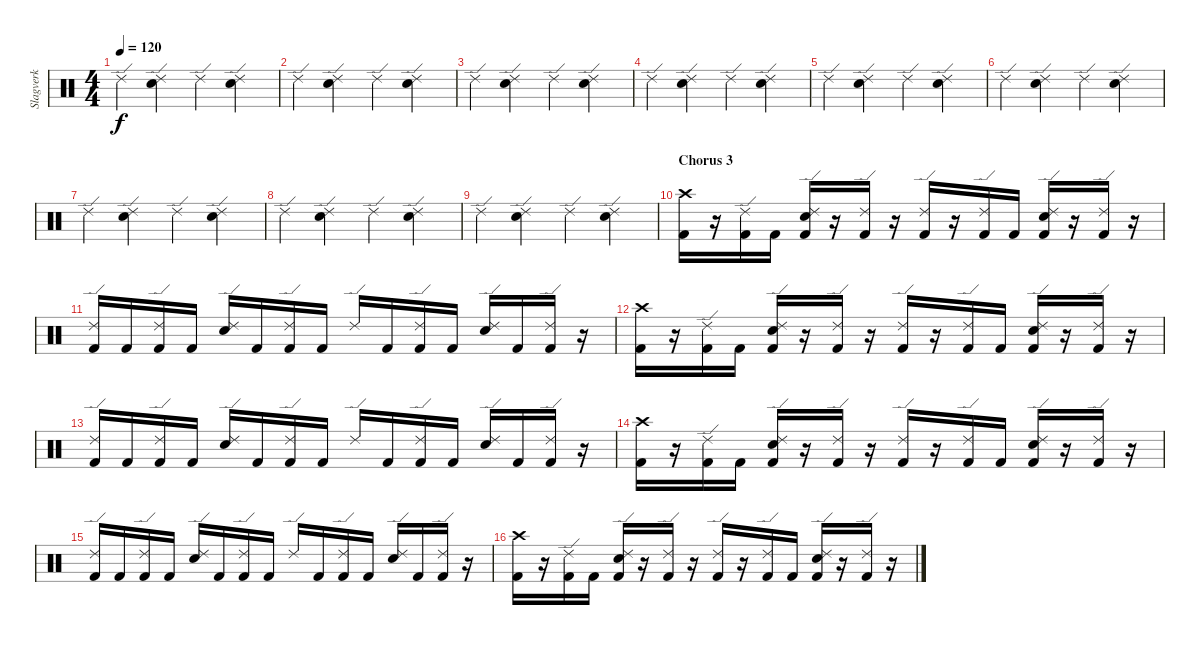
\track ("Slagverk" "Slagverk") {instrument percussion}
\staff {score}
\articulation defaults
\ts (4 4)
\tempo 120
\clef neutral
\ks c "Ride (edge) 2".4{dy f}
("Ride (edge) 2" "Electric Snare (hit)").4 "Ride (edge) 2".4 ("Ride (edge) 2" "Electric Snare (hit)").4 |
"Ride (edge) 2".4 ("Ride (edge) 2" "Electric Snare (hit)").4 "Ride (edge) 2".4 ("Ride (edge) 2" "Electric Snare (hit)").4 |
"Ride (edge) 2".4 ("Ride (edge) 2" "Electric Snare (hit)").4 "Ride (edge) 2".4 ("Ride (edge) 2" "Electric Snare (hit)").4 |
"Ride (edge) 2".4 ("Ride (edge) 2" "Electric Snare (hit)").4 "Ride (edge) 2".4 ("Ride (edge) 2" "Electric Snare (hit)").4 |
"Ride (edge) 2".4 ("Ride (edge) 2" "Electric Snare (hit)").4 "Ride (edge) 2".4 ("Ride (edge) 2" "Electric Snare (hit)").4 |
"Ride (edge) 2".4 ("Ride (edge) 2" "Electric Snare (hit)").4 "Ride (edge) 2".4 ("Ride (edge) 2" "Electric Snare (hit)").4 |
"Ride (edge) 2".4 ("Ride (edge) 2" "Electric Snare (hit)").4 "Ride (edge) 2".4 ("Ride (edge) 2" "Electric Snare (hit)").4 |
"Ride (edge) 2".4 ("Ride (edge) 2" "Electric Snare (hit)").4 "Ride (edge) 2".4 ("Ride (edge) 2" "Electric Snare (hit)").4 |
"Ride (edge) 2".4 ("Ride (edge) 2" "Electric Snare (hit)").4 "Ride (edge) 2".4 ("Ride (edge) 2" "Electric Snare (hit)").4 |
\section ("" "Chorus 3")
("Kick (hit) 2" "Crash high (hit)").16 r.16 ("Kick (hit) 2" "Ride (edge) 2").16 "Kick (hit) 2".16 ("Kick (hit) 2" "Electric Snare (hit)" "Ride (edge) 2").16 r.16 ("Kick (hit) 2" "Ride (edge) 2").16 r.16 ("Kick (hit) 2" "Ride (edge) 2").16 r.16 ("Kick (hit) 2" "Ride (edge) 2").16 "Kick (hit) 2".16 ("Kick (hit) 2" "Electric Snare (hit)" "Ride (edge) 2").16 r.16 ("Kick (hit) 2" "Ride (edge) 2").16 r.16 |
("Kick (hit) 2" "Ride (edge) 2").16 "Kick (hit) 2".16 ("Kick (hit) 2" "Ride (edge) 2").16 "Kick (hit) 2".16 ("Electric Snare (hit)" "Ride (edge) 2").16 "Kick (hit) 2".16 ("Kick (hit) 2" "Ride (edge) 2").16 "Kick (hit) 2".16 "Ride (edge) 2".16 "Kick (hit) 2".16 ("Kick (hit) 2" "Ride (edge) 2").16 "Kick (hit) 2".16 ("Electric Snare (hit)" "Ride (edge) 2").16 "Kick (hit) 2".16 ("Kick (hit) 2" "Ride (edge) 2").16 r.16 |
("Kick (hit) 2" "Crash high (hit)").16 r.16 ("Kick (hit) 2" "Ride (edge) 2").16 "Kick (hit) 2".16 ("Kick (hit) 2" "Electric Snare (hit)" "Ride (edge) 2").16 r.16 ("Kick (hit) 2" "Ride (edge) 2").16 r.16 ("Kick (hit) 2" "Ride (edge) 2").16 r.16 ("Kick (hit) 2" "Ride (edge) 2").16 "Kick (hit) 2".16 ("Kick (hit) 2" "Electric Snare (hit)" "Ride (edge) 2").16 r.16 ("Kick (hit) 2" "Ride (edge) 2").16 r.16 |
("Kick (hit) 2" "Ride (edge) 2").16 "Kick (hit) 2".16 ("Kick (hit) 2" "Ride (edge) 2").16 "Kick (hit) 2".16 ("Electric Snare (hit)" "Ride (edge) 2").16 "Kick (hit) 2".16 ("Kick (hit) 2" "Ride (edge) 2").16 "Kick (hit) 2".16 "Ride (edge) 2".16 "Kick (hit) 2".16 ("Kick (hit) 2" "Ride (edge) 2").16 "Kick (hit) 2".16 ("Electric Snare (hit)" "Ride (edge) 2").16 "Kick (hit) 2".16 ("Kick (hit) 2" "Ride (edge) 2").16 r.16 |
("Kick (hit) 2" "Crash high (hit)").16 r.16 ("Kick (hit) 2" "Ride (edge) 2").16 "Kick (hit) 2".16 ("Kick (hit) 2" "Electric Snare (hit)" "Ride (edge) 2").16 r.16 ("Kick (hit) 2" "Ride (edge) 2").16 r.16 ("Kick (hit) 2" "Ride (edge) 2").16 r.16 ("Kick (hit) 2" "Ride (edge) 2").16 "Kick (hit) 2".16 ("Kick (hit) 2" "Electric Snare (hit)" "Ride (edge) 2").16 r.16 ("Kick (hit) 2" "Ride (edge) 2").16 r.16 |
("Kick (hit) 2" "Ride (edge) 2").16 "Kick (hit) 2".16 ("Kick (hit) 2" "Ride (edge) 2").16 "Kick (hit) 2".16 ("Electric Snare (hit)" "Ride (edge) 2").16 "Kick (hit) 2".16 ("Kick (hit) 2" "Ride (edge) 2").16 "Kick (hit) 2".16 "Ride (edge) 2".16 "Kick (hit) 2".16 ("Kick (hit) 2" "Ride (edge) 2").16 "Kick (hit) 2".16 ("Electric Snare (hit)" "Ride (edge) 2").16 "Kick (hit) 2".16 ("Kick (hit) 2" "Ride (edge) 2").16 r.16 |
("Kick (hit) 2" "Crash high (hit)").16 r.16 ("Kick (hit) 2" "Ride (edge) 2").16 "Kick (hit) 2".16 ("Kick (hit) 2" "Electric Snare (hit)" "Ride (edge) 2").16 r.16 ("Kick (hit) 2" "Ride (edge) 2").16 r.16 ("Kick (hit) 2" "Ride (edge) 2").16 r.16 ("Kick (hit) 2" "Ride (edge) 2").16 "Kick (hit) 2".16 ("Kick (hit) 2" "Electric Snare (hit)" "Ride (edge) 2").16 r.16 ("Kick (hit) 2" "Ride (edge) 2").16 r.16
